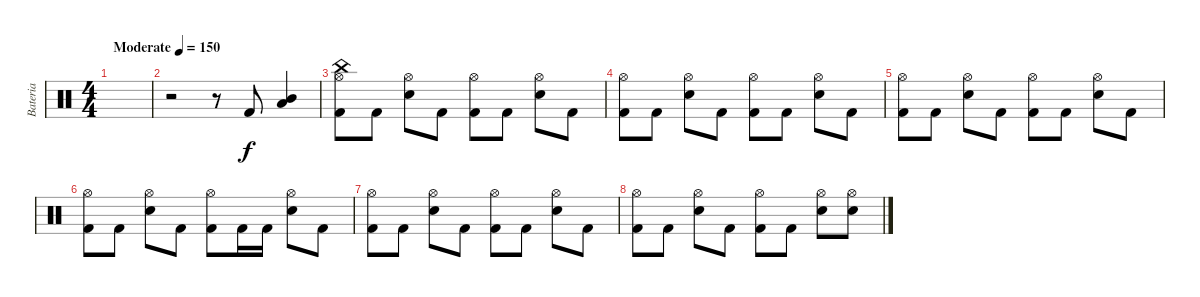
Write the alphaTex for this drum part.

\track ("Bateria" "Bateria") {instrument percussion}
\staff {score}
\articulation defaults
\ts (4 4)
\tempo (150 "Moderate")
\clef neutral
\ks c
|
r.2 r.8 "Kick (hit) 2".8 ("Low Tom (hit)" "Mid Tom (hit)").4 |
("Kick (hit) 2" "China (hit)" "Hi-Hat (open)").8 "Kick (hit) 2".8 ("Electric Snare (hit)" "Hi-Hat (open)").8 "Kick (hit) 2".8 ("Kick (hit) 2" "Hi-Hat (open)").8 "Kick (hit) 2".8 ("Electric Snare (hit)" "Hi-Hat (open)").8 "Kick (hit) 2".8 |
("Kick (hit) 2" "Hi-Hat (open)").8 "Kick (hit) 2".8 ("Electric Snare (hit)" "Hi-Hat (open)").8 "Kick (hit) 2".8 ("Kick (hit) 2" "Hi-Hat (open)").8 "Kick (hit) 2".8 ("Electric Snare (hit)" "Hi-Hat (open)").8 "Kick (hit) 2".8 |
("Kick (hit) 2" "Hi-Hat (open)").8 "Kick (hit) 2".8 ("Electric Snare (hit)" "Hi-Hat (open)").8 "Kick (hit) 2".8 ("Kick (hit) 2" "Hi-Hat (open)").8 "Kick (hit) 2".8 ("Electric Snare (hit)" "Hi-Hat (open)").8 "Kick (hit) 2".8 |
("Kick (hit) 2" "Hi-Hat (open)").8 "Kick (hit) 2".8 ("Electric Snare (hit)" "Hi-Hat (open)").8 "Kick (hit) 2".8 ("Kick (hit) 2" "Hi-Hat (open)").8 "Kick (hit) 2".16 "Kick (hit) 2".16 ("Electric Snare (hit)" "Hi-Hat (open)").8 "Kick (hit) 2".8 |
("Kick (hit) 2" "Hi-Hat (open)").8 "Kick (hit) 2".8 ("Electric Snare (hit)" "Hi-Hat (open)").8 "Kick (hit) 2".8 ("Kick (hit) 2" "Hi-Hat (open)").8 "Kick (hit) 2".8 ("Electric Snare (hit)" "Hi-Hat (open)").8 "Kick (hit) 2".8 |
("Kick (hit) 2" "Hi-Hat (open)").8 "Kick (hit) 2".8 ("Electric Snare (hit)" "Hi-Hat (open)").8 "Kick (hit) 2".8 ("Kick (hit) 2" "Hi-Hat (open)").8 "Kick (hit) 2".8 ("Electric Snare (hit)" "Hi-Hat (open)").8 ("Electric Snare (hit)" "Hi-Hat (open)").8
